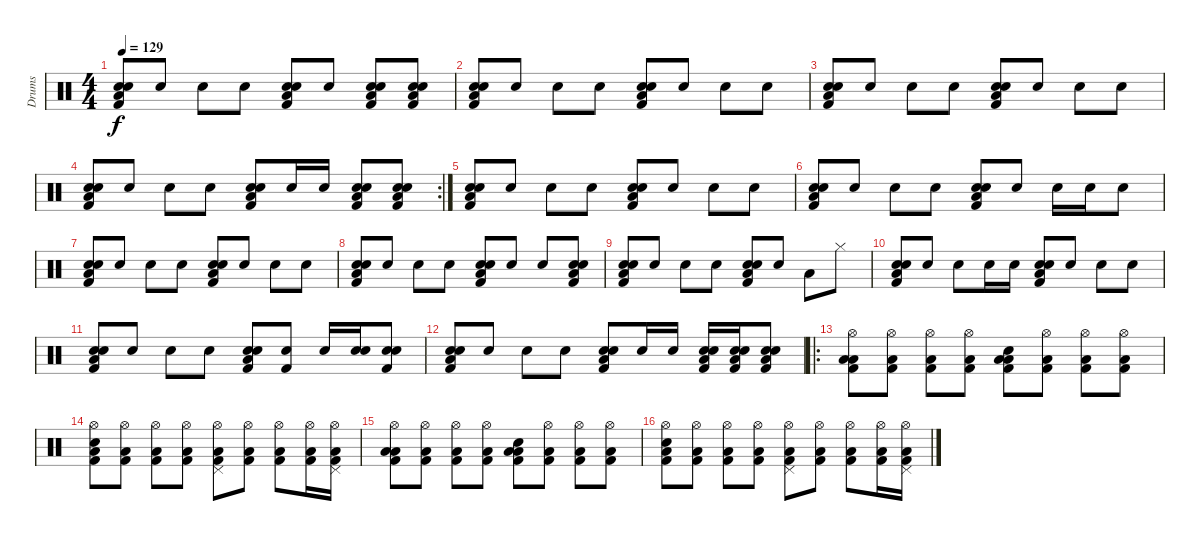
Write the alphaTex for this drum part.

\track ("Drums" "Drums") {instrument percussion}
\staff {score}
\articulation defaults
\ts (4 4)
\tempo 129
\clef neutral
\ks c
("Snare (hit) 2" "Low Tom (hit)" "Snare (hit) 2" "Kick (hit) 2").8{dy f} "Snare (hit) 2".8 "Snare (hit) 2".8 "Snare (hit) 2".8 ("Snare (hit) 2" "Low Tom (hit)" "Snare (hit) 2" "Kick (hit) 2").8 "Snare (hit) 2".8 ("Snare (hit) 2" "Low Tom (hit)" "Snare (hit) 2" "Kick (hit) 2").8 ("Snare (hit) 2" "Low Tom (hit)" "Snare (hit) 2" "Kick (hit) 2").8 |
("Snare (hit) 2" "Low Tom (hit)" "Snare (hit) 2" "Kick (hit) 2").8 "Snare (hit) 2".8 "Snare (hit) 2".8 "Snare (hit) 2".8 ("Snare (hit) 2" "Low Tom (hit)" "Snare (hit) 2" "Kick (hit) 2").8 "Snare (hit) 2".8 "Snare (hit) 2".8 "Snare (hit) 2".8 |
("Snare (hit) 2" "Low Tom (hit)" "Snare (hit) 2" "Kick (hit) 2").8 "Snare (hit) 2".8 "Snare (hit) 2".8 "Snare (hit) 2".8 ("Snare (hit) 2" "Low Tom (hit)" "Snare (hit) 2" "Kick (hit) 2").8 "Snare (hit) 2".8 "Snare (hit) 2".8 "Snare (hit) 2".8 |
\rc 2
("Snare (hit) 2" "Low Tom (hit)" "Snare (hit) 2" "Kick (hit) 2").8 "Snare (hit) 2".8 "Snare (hit) 2".8 "Snare (hit) 2".8 ("Snare (hit) 2" "Low Tom (hit)" "Snare (hit) 2" "Kick (hit) 2").8 "Snare (hit) 2".16 "Snare (hit) 2".16 ("Snare (hit) 2" "Low Tom (hit)" "Snare (hit) 2" "Kick (hit) 2").8 ("Snare (hit) 2" "Low Tom (hit)" "Snare (hit) 2" "Kick (hit) 2").8 |
("Snare (hit) 2" "Low Tom (hit)" "Snare (hit) 2" "Kick (hit) 2").8 "Snare (hit) 2".8 "Snare (hit) 2".8 "Snare (hit) 2".8 ("Snare (hit) 2" "Low Tom (hit)" "Snare (hit) 2" "Kick (hit) 2").8 "Snare (hit) 2".8 "Snare (hit) 2".8 "Snare (hit) 2".8 |
("Snare (hit) 2" "Low Tom (hit)" "Snare (hit) 2" "Kick (hit) 2").8 "Snare (hit) 2".8 "Snare (hit) 2".8 "Snare (hit) 2".8 ("Snare (hit) 2" "Low Tom (hit)" "Snare (hit) 2" "Kick (hit) 2").8 "Snare (hit) 2".8 "Snare (hit) 2".16 "Snare (hit) 2".16 "Snare (hit) 2".8 |
("Snare (hit) 2" "Low Tom (hit)" "Snare (hit) 2" "Kick (hit) 2").8 "Snare (hit) 2".8 "Snare (hit) 2".8 "Snare (hit) 2".8 ("Snare (hit) 2" "Low Tom (hit)" "Snare (hit) 2" "Kick (hit) 2").8 "Snare (hit) 2".8 "Snare (hit) 2".8 "Snare (hit) 2".8 |
("Snare (hit) 2" "Low Tom (hit)" "Snare (hit) 2" "Kick (hit) 2").8 "Snare (hit) 2".8 "Snare (hit) 2".8 "Snare (hit) 2".8 ("Snare (hit) 2" "Low Tom (hit)" "Snare (hit) 2" "Kick (hit) 2").8 "Snare (hit) 2".8 "Snare (hit) 2".8 ("Snare (hit) 2" "Low Tom (hit)" "Snare (hit) 2" "Kick (hit) 2").8 |
("Snare (hit) 2" "Low Tom (hit)" "Snare (hit) 2" "Kick (hit) 2").8 "Snare (hit) 2".8 "Snare (hit) 2".8 "Snare (hit) 2".8 ("Snare (hit) 2" "Low Tom (hit)" "Snare (hit) 2" "Kick (hit) 2").8 "Snare (hit) 2".8 "Low Floor Tom (hit)".8 "Hi-Hat (closed)".8 |
("Snare (hit) 2" "Low Tom (hit)" "Snare (hit) 2" "Kick (hit) 2").8 "Snare (hit) 2".8 "Snare (hit) 2".8 "Snare (hit) 2".16 "Snare (hit) 2".16 ("Snare (hit) 2" "Low Tom (hit)" "Snare (hit) 2" "Kick (hit) 2").8 "Snare (hit) 2".8 "Snare (hit) 2".8 "Snare (hit) 2".8 |
("Snare (hit) 2" "Low Tom (hit)" "Snare (hit) 2" "Kick (hit) 2").8 "Snare (hit) 2".8 "Snare (hit) 2".8 "Snare (hit) 2".8 ("Snare (hit) 2" "Low Tom (hit)" "Snare (hit) 2" "Kick (hit) 2").8 ("Snare (hit) 2" "Kick (hit) 2").8 "Snare (hit) 2".16 ("Snare (hit) 2" "Snare (hit) 2").16 ("Snare (hit) 2" "Snare (hit) 2" "Kick (hit) 2").8 |
("Snare (hit) 2" "Low Tom (hit)" "Snare (hit) 2" "Kick (hit) 2").8 "Snare (hit) 2".8 "Snare (hit) 2".8 "Snare (hit) 2".8 ("Snare (hit) 2" "Low Tom (hit)" "Snare (hit) 2" "Kick (hit) 2").8 "Snare (hit) 2".16 "Snare (hit) 2".16 ("Snare (hit) 2" "Low Tom (hit)" "Snare (hit) 2" "Kick (hit) 2").16 ("Snare (hit) 2" "Low Tom (hit)" "Snare (hit) 2" "Kick (hit) 2").16 ("Snare (hit) 2" "Low Tom (hit)" "Snare (hit) 2" "Kick (hit) 2").8 |
\ro
("Hi-Hat (open)" "Low Tom (hit)" "Low Floor Tom (hit)" "Kick (hit) 2").8 ("Hi-Hat (open)" "Low Floor Tom (hit)" "Kick (hit) 2").8 ("Hi-Hat (open)" "Low Floor Tom (hit)" "Kick (hit) 2").8 ("Hi-Hat (open)" "Low Floor Tom (hit)" "Kick (hit) 2").8 ("Snare (hit) 2" "Low Tom (hit)" "Low Floor Tom (hit)" "Kick (hit) 2").8 ("Hi-Hat (open)" "Low Floor Tom (hit)" "Kick (hit) 2").8 ("Hi-Hat (open)" "Low Floor Tom (hit)" "Kick (hit) 2").8 ("Hi-Hat (open)" "Low Floor Tom (hit)" "Kick (hit) 2").8 |
("Hi-Hat (open)" "Snare (hit)" "Low Floor Tom (hit)" "Kick (hit) 2").8 ("Hi-Hat (open)" "Low Floor Tom (hit)" "Kick (hit) 2").8 ("Hi-Hat (open)" "Low Floor Tom (hit)" "Kick (hit) 2").8 ("Hi-Hat (open)" "Low Floor Tom (hit)" "Kick (hit) 2").8 ("Hi-Hat (open)" "Pedal Hi-Hat (hit)" "Low Floor Tom (hit)" "Kick (hit) 2").8 ("Hi-Hat (open)" "Low Floor Tom (hit)" "Kick (hit) 2").8 ("Hi-Hat (open)" "Low Floor Tom (hit)" "Kick (hit) 2").8 ("Hi-Hat (open)" "Low Floor Tom (hit)" "Kick (hit) 2").16 ("Hi-Hat (open)" "Pedal Hi-Hat (hit)" "Low Floor Tom (hit)" "Kick (hit) 2").16 |
("Hi-Hat (open)" "Low Tom (hit)" "Low Floor Tom (hit)" "Kick (hit) 2").8 ("Hi-Hat (open)" "Low Floor Tom (hit)" "Kick (hit) 2").8 ("Hi-Hat (open)" "Low Floor Tom (hit)" "Kick (hit) 2").8 ("Hi-Hat (open)" "Low Floor Tom (hit)" "Kick (hit) 2").8 ("Snare (hit) 2" "Low Tom (hit)" "Low Floor Tom (hit)" "Kick (hit) 2").8 ("Hi-Hat (open)" "Low Floor Tom (hit)" "Kick (hit) 2").8 ("Hi-Hat (open)" "Low Floor Tom (hit)" "Kick (hit) 2").8 ("Hi-Hat (open)" "Low Floor Tom (hit)" "Kick (hit) 2").8 |
("Hi-Hat (open)" "Snare (hit)" "Low Floor Tom (hit)" "Kick (hit) 2").8 ("Hi-Hat (open)" "Low Floor Tom (hit)" "Kick (hit) 2").8 ("Hi-Hat (open)" "Low Floor Tom (hit)" "Kick (hit) 2").8 ("Hi-Hat (open)" "Low Floor Tom (hit)" "Kick (hit) 2").8 ("Hi-Hat (open)" "Pedal Hi-Hat (hit)" "Low Floor Tom (hit)" "Kick (hit) 2").8 ("Hi-Hat (open)" "Low Floor Tom (hit)" "Kick (hit) 2").8 ("Hi-Hat (open)" "Low Floor Tom (hit)" "Kick (hit) 2").8 ("Hi-Hat (open)" "Low Floor Tom (hit)" "Kick (hit) 2").16 ("Hi-Hat (open)" "Pedal Hi-Hat (hit)" "Low Floor Tom (hit)" "Kick (hit) 2").16
